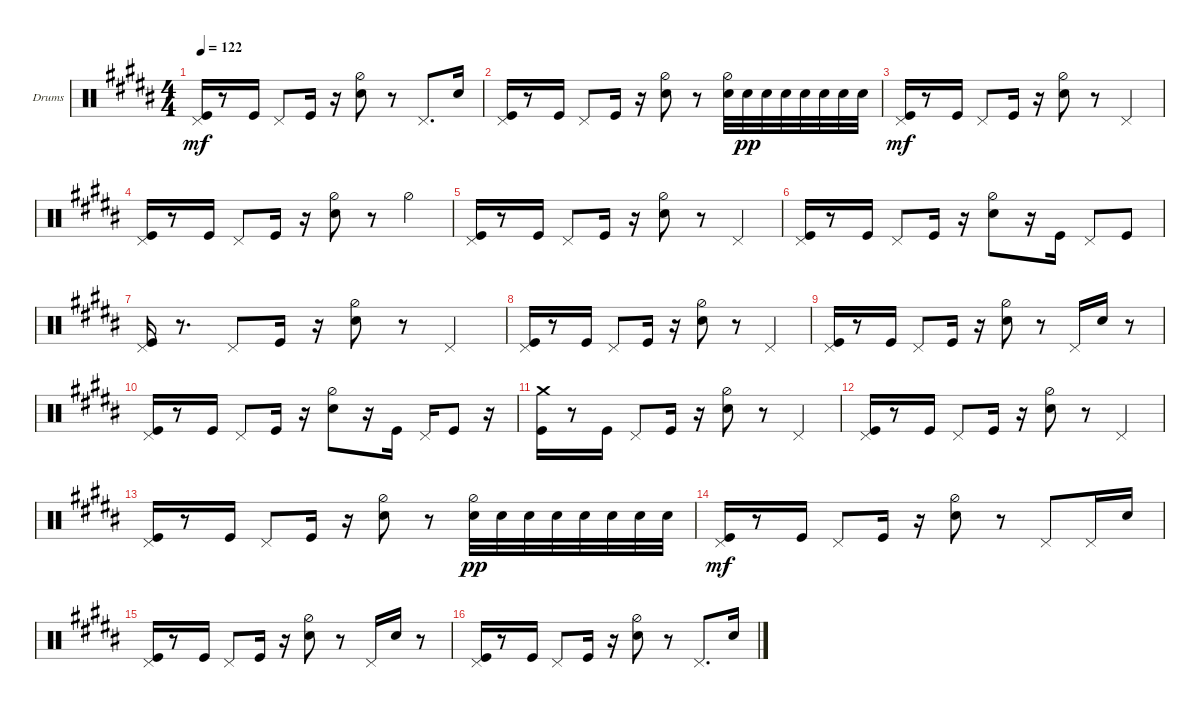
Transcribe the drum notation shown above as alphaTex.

\defaultSystemsLayout 4
\bracketExtendMode groupsimilarinstruments
\firstSystemTrackNameOrientation horizontal
\otherSystemsTrackNameOrientation horizontal
\track ("Drumkit" "Drums") {multiBarRest instrument percussion}
\staff {score}
\articulation defaults
\ts (4 4)
\tempo 122
\clef neutral
\ks b
("Kick (hit)" "Pedal Hi-Hat (hit)").16{dy mf} r.8 "Kick (hit)".16 "Pedal Hi-Hat (hit)".8 "Kick (hit)".16 r.16 ("Snare (hit) 2" "Hi-Hat (half)").8 r.8 "Pedal Hi-Hat (hit)".8{d} "Snare (hit) 2".16 |
("Kick (hit)" "Pedal Hi-Hat (hit)").16 r.8 "Kick (hit)".16 "Pedal Hi-Hat (hit)".8 "Kick (hit)".16 r.16 ("Snare (hit) 2" "Hi-Hat (half)").8 r.8 ("Hi-Hat (half)" "Snare (hit) 2").32 "Snare (hit) 2".32{dy pp} "Snare (hit) 2".32 "Snare (hit) 2".32 "Snare (hit) 2".32 "Snare (hit) 2".32 "Snare (hit) 2".32 "Snare (hit) 2".32 |
("Kick (hit)" "Pedal Hi-Hat (hit)").16{dy mf} r.8 "Kick (hit)".16 "Pedal Hi-Hat (hit)".8 "Kick (hit)".16 r.16 ("Snare (hit) 2" "Hi-Hat (half)").8 r.8 "Pedal Hi-Hat (hit)".4 |
("Kick (hit)" "Pedal Hi-Hat (hit)").16 r.8 "Kick (hit)".16 "Pedal Hi-Hat (hit)".8 "Kick (hit)".16 r.16 ("Snare (hit) 2" "Hi-Hat (half)").8 r.8 "Hi-Hat (half)".4 |
("Kick (hit)" "Pedal Hi-Hat (hit)").16 r.8 "Kick (hit)".16 "Pedal Hi-Hat (hit)".8 "Kick (hit)".16 r.16 ("Snare (hit) 2" "Hi-Hat (half)").8 r.8 "Pedal Hi-Hat (hit)".4 |
("Kick (hit)" "Pedal Hi-Hat (hit)").16 r.8 "Kick (hit)".16 "Pedal Hi-Hat (hit)".8 "Kick (hit)".16 r.16 ("Snare (hit) 2" "Hi-Hat (half)").8 r.16 "Kick (hit)".16 "Pedal Hi-Hat (hit)".8 "Kick (hit)".8 |
("Kick (hit)" "Pedal Hi-Hat (hit)").16 r.8{d} "Pedal Hi-Hat (hit)".8 "Kick (hit)".16 r.16 ("Snare (hit) 2" "Hi-Hat (half)").8 r.8 "Pedal Hi-Hat (hit)".4 |
("Kick (hit)" "Pedal Hi-Hat (hit)").16 r.8 "Kick (hit)".16 "Pedal Hi-Hat (hit)".8 "Kick (hit)".16 r.16 ("Snare (hit) 2" "Hi-Hat (half)").8 r.8 "Pedal Hi-Hat (hit)".4 |
("Kick (hit)" "Pedal Hi-Hat (hit)").16 r.8 "Kick (hit)".16 "Pedal Hi-Hat (hit)".8 "Kick (hit)".16 r.16 ("Snare (hit) 2" "Hi-Hat (half)").8 r.8 "Pedal Hi-Hat (hit)".16 "Snare (hit) 2".16 r.8 |
("Kick (hit)" "Pedal Hi-Hat (hit)").16 r.8 "Kick (hit)".16 "Pedal Hi-Hat (hit)".8 "Kick (hit)".16 r.16 ("Snare (hit) 2" "Hi-Hat (half)").8 r.16 "Kick (hit)".16 "Pedal Hi-Hat (hit)".16 "Kick (hit)".8 r.16 |
("Kick (hit)" "Crash medium (hit)").16 r.8 "Kick (hit)".16 "Pedal Hi-Hat (hit)".8 "Kick (hit)".16 r.16 ("Snare (hit) 2" "Hi-Hat (half)").8 r.8 "Pedal Hi-Hat (hit)".4 |
("Kick (hit)" "Pedal Hi-Hat (hit)").16 r.8 "Kick (hit)".16 "Pedal Hi-Hat (hit)".8 "Kick (hit)".16 r.16 ("Snare (hit) 2" "Hi-Hat (half)").8 r.8 "Pedal Hi-Hat (hit)".4 |
("Kick (hit)" "Pedal Hi-Hat (hit)").16 r.8 "Kick (hit)".16 "Pedal Hi-Hat (hit)".8 "Kick (hit)".16 r.16 ("Snare (hit) 2" "Hi-Hat (half)").8 r.8 ("Hi-Hat (half)" "Snare (hit) 2").32{dy pp} "Snare (hit) 2".32 "Snare (hit) 2".32 "Snare (hit) 2".32 "Snare (hit) 2".32 "Snare (hit) 2".32 "Snare (hit) 2".32 "Snare (hit) 2".32 |
("Kick (hit)" "Pedal Hi-Hat (hit)").16{dy mf} r.8 "Kick (hit)".16 "Pedal Hi-Hat (hit)".8 "Kick (hit)".16 r.16 ("Snare (hit) 2" "Hi-Hat (half)").8 r.8 "Pedal Hi-Hat (hit)".8 "Pedal Hi-Hat (hit)".16 "Snare (hit) 2".16 |
("Kick (hit)" "Pedal Hi-Hat (hit)").16 r.8 "Kick (hit)".16 "Pedal Hi-Hat (hit)".8 "Kick (hit)".16 r.16 ("Snare (hit) 2" "Hi-Hat (half)").8 r.8 "Pedal Hi-Hat (hit)".16 "Snare (hit) 2".16 r.8 |
("Kick (hit)" "Pedal Hi-Hat (hit)").16 r.8 "Kick (hit)".16 "Pedal Hi-Hat (hit)".8 "Kick (hit)".16 r.16 ("Snare (hit) 2" "Hi-Hat (half)").8 r.8 "Pedal Hi-Hat (hit)".8{d} "Snare (hit) 2".16
